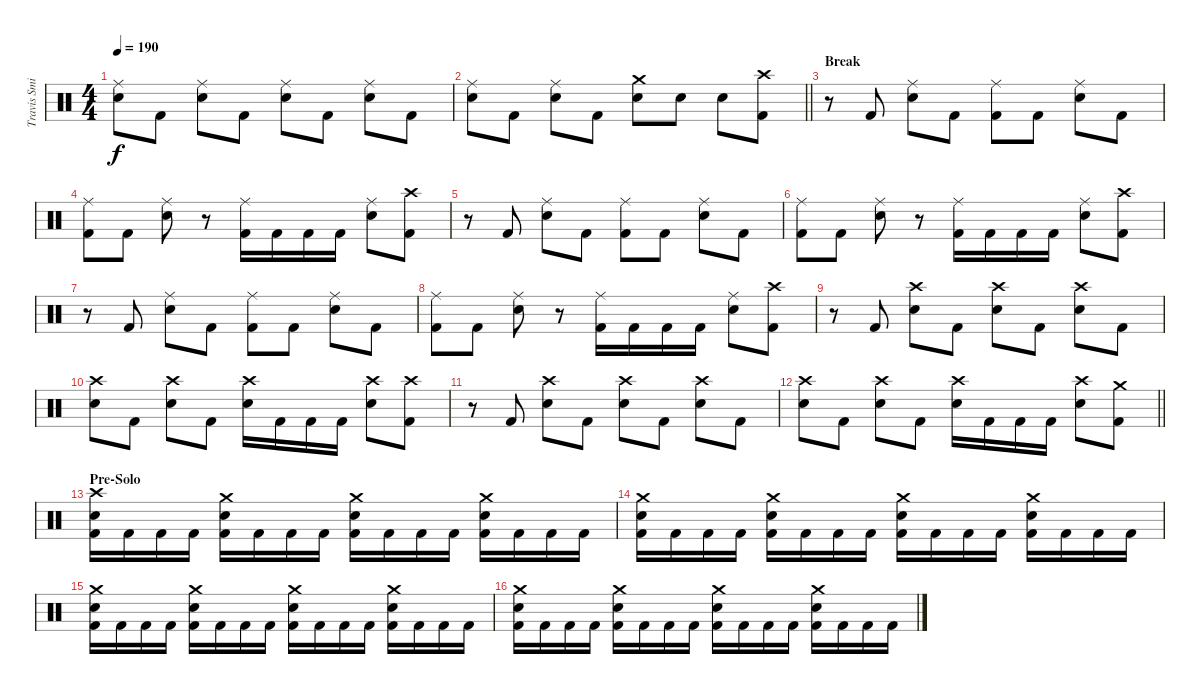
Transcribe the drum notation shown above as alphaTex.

\track ("Travis Smith" "Travis Smi") {instrument percussion}
\staff {score}
\articulation defaults
\ts (4 4)
\tempo 190
\clef neutral
\ks c
("Ride (middle)" "Electric Snare (hit)").8{dy f} "Kick (hit) 2".8 ("Ride (middle)" "Electric Snare (hit)").8 "Kick (hit) 2".8 ("Ride (middle)" "Electric Snare (hit)").8 "Kick (hit) 2".8 ("Ride (middle)" "Electric Snare (hit)").8 "Kick (hit) 2".8 |
\barLineRight lightlight
("Ride (middle)" "Electric Snare (hit)").8 "Kick (hit) 2".8 ("Ride (middle)" "Electric Snare (hit)").8 "Kick (hit) 2".8 ("Crash medium (hit)" "Electric Snare (hit)").8 "Electric Snare (hit)".8 "Electric Snare (hit)".8 ("Crash high (hit)" "Kick (hit) 2").8 |
\section ("" "Break")
r.8 "Kick (hit) 2".8 ("Ride (middle)" "Electric Snare (hit)").8 "Kick (hit) 2".8 ("Ride (middle)" "Kick (hit) 2").8 "Kick (hit) 2".8 ("Ride (middle)" "Electric Snare (hit)").8 "Kick (hit) 2".8 |
("Ride (middle)" "Kick (hit) 2").8 "Kick (hit) 2".8 ("Ride (middle)" "Electric Snare (hit)").8 r.8 ("Ride (middle)" "Kick (hit) 2").16 "Kick (hit) 2".16 "Kick (hit) 2".16 "Kick (hit) 2".16 ("Ride (middle)" "Electric Snare (hit)").8 ("Crash high (hit)" "Kick (hit) 2").8 |
r.8 "Kick (hit) 2".8 ("Ride (middle)" "Electric Snare (hit)").8 "Kick (hit) 2".8 ("Ride (middle)" "Kick (hit) 2").8 "Kick (hit) 2".8 ("Ride (middle)" "Electric Snare (hit)").8 "Kick (hit) 2".8 |
("Ride (middle)" "Kick (hit) 2").8 "Kick (hit) 2".8 ("Ride (middle)" "Electric Snare (hit)").8 r.8 ("Ride (middle)" "Kick (hit) 2").16 "Kick (hit) 2".16 "Kick (hit) 2".16 "Kick (hit) 2".16 ("Ride (middle)" "Electric Snare (hit)").8 ("Crash high (hit)" "Kick (hit) 2").8 |
r.8 "Kick (hit) 2".8 ("Ride (middle)" "Electric Snare (hit)").8 "Kick (hit) 2".8 ("Ride (middle)" "Kick (hit) 2").8 "Kick (hit) 2".8 ("Ride (middle)" "Electric Snare (hit)").8 "Kick (hit) 2".8 |
("Ride (middle)" "Kick (hit) 2").8 "Kick (hit) 2".8 ("Ride (middle)" "Electric Snare (hit)").8 r.8 ("Ride (middle)" "Kick (hit) 2").16 "Kick (hit) 2".16 "Kick (hit) 2".16 "Kick (hit) 2".16 ("Ride (middle)" "Electric Snare (hit)").8 ("Crash high (hit)" "Kick (hit) 2").8 |
r.8 "Kick (hit) 2".8 ("Crash high (hit)" "Electric Snare (hit)").8 "Kick (hit) 2".8 ("Crash high (hit)" "Electric Snare (hit)").8 "Kick (hit) 2".8 ("Crash high (hit)" "Electric Snare (hit)").8 "Kick (hit) 2".8 |
("Crash high (hit)" "Electric Snare (hit)").8 "Kick (hit) 2".8 ("Crash high (hit)" "Electric Snare (hit)").8 "Kick (hit) 2".8 ("Crash high (hit)" "Electric Snare (hit)").16 "Kick (hit) 2".16 "Kick (hit) 2".16 "Kick (hit) 2".16 ("Crash high (hit)" "Electric Snare (hit)").8 ("Crash high (hit)" "Kick (hit) 2").8 |
r.8 "Kick (hit) 2".8 ("Crash high (hit)" "Electric Snare (hit)").8 "Kick (hit) 2".8 ("Crash high (hit)" "Electric Snare (hit)").8 "Kick (hit) 2".8 ("Crash high (hit)" "Electric Snare (hit)").8 "Kick (hit) 2".8 |
\barLineRight lightlight
("Crash high (hit)" "Electric Snare (hit)").8 "Kick (hit) 2".8 ("Crash high (hit)" "Electric Snare (hit)").8 "Kick (hit) 2".8 ("Crash high (hit)" "Electric Snare (hit)").16 "Kick (hit) 2".16 "Kick (hit) 2".16 "Kick (hit) 2".16 ("Crash high (hit)" "Electric Snare (hit)").8 ("Crash medium (hit)" "Kick (hit) 2").8 |
\section ("" "Pre-Solo")
("Crash high (hit)" "Electric Snare (hit)" "Kick (hit) 2").16 "Kick (hit) 2".16 "Kick (hit) 2".16 "Kick (hit) 2".16 ("Crash medium (hit)" "Electric Snare (hit)" "Kick (hit) 2").16 "Kick (hit) 2".16 "Kick (hit) 2".16 "Kick (hit) 2".16 ("Crash medium (hit)" "Electric Snare (hit)" "Kick (hit) 2").16 "Kick (hit) 2".16 "Kick (hit) 2".16 "Kick (hit) 2".16 ("Crash medium (hit)" "Electric Snare (hit)" "Kick (hit) 2").16 "Kick (hit) 2".16 "Kick (hit) 2".16 "Kick (hit) 2".16 |
("Crash medium (hit)" "Electric Snare (hit)" "Kick (hit) 2").16 "Kick (hit) 2".16 "Kick (hit) 2".16 "Kick (hit) 2".16 ("Crash medium (hit)" "Electric Snare (hit)" "Kick (hit) 2").16 "Kick (hit) 2".16 "Kick (hit) 2".16 "Kick (hit) 2".16 ("Crash medium (hit)" "Electric Snare (hit)" "Kick (hit) 2").16 "Kick (hit) 2".16 "Kick (hit) 2".16 "Kick (hit) 2".16 ("Crash medium (hit)" "Electric Snare (hit)" "Kick (hit) 2").16 "Kick (hit) 2".16 "Kick (hit) 2".16 "Kick (hit) 2".16 |
("Crash medium (hit)" "Electric Snare (hit)" "Kick (hit) 2").16 "Kick (hit) 2".16 "Kick (hit) 2".16 "Kick (hit) 2".16 ("Crash medium (hit)" "Electric Snare (hit)" "Kick (hit) 2").16 "Kick (hit) 2".16 "Kick (hit) 2".16 "Kick (hit) 2".16 ("Crash medium (hit)" "Electric Snare (hit)" "Kick (hit) 2").16 "Kick (hit) 2".16 "Kick (hit) 2".16 "Kick (hit) 2".16 ("Crash medium (hit)" "Electric Snare (hit)" "Kick (hit) 2").16 "Kick (hit) 2".16 "Kick (hit) 2".16 "Kick (hit) 2".16 |
("Crash medium (hit)" "Electric Snare (hit)" "Kick (hit) 2").16 "Kick (hit) 2".16 "Kick (hit) 2".16 "Kick (hit) 2".16 ("Crash medium (hit)" "Electric Snare (hit)" "Kick (hit) 2").16 "Kick (hit) 2".16 "Kick (hit) 2".16 "Kick (hit) 2".16 ("Crash medium (hit)" "Electric Snare (hit)" "Kick (hit) 2").16 "Kick (hit) 2".16 "Kick (hit) 2".16 "Kick (hit) 2".16 ("Crash medium (hit)" "Electric Snare (hit)" "Kick (hit) 2").16 "Kick (hit) 2".16 "Kick (hit) 2".16 "Kick (hit) 2".16
